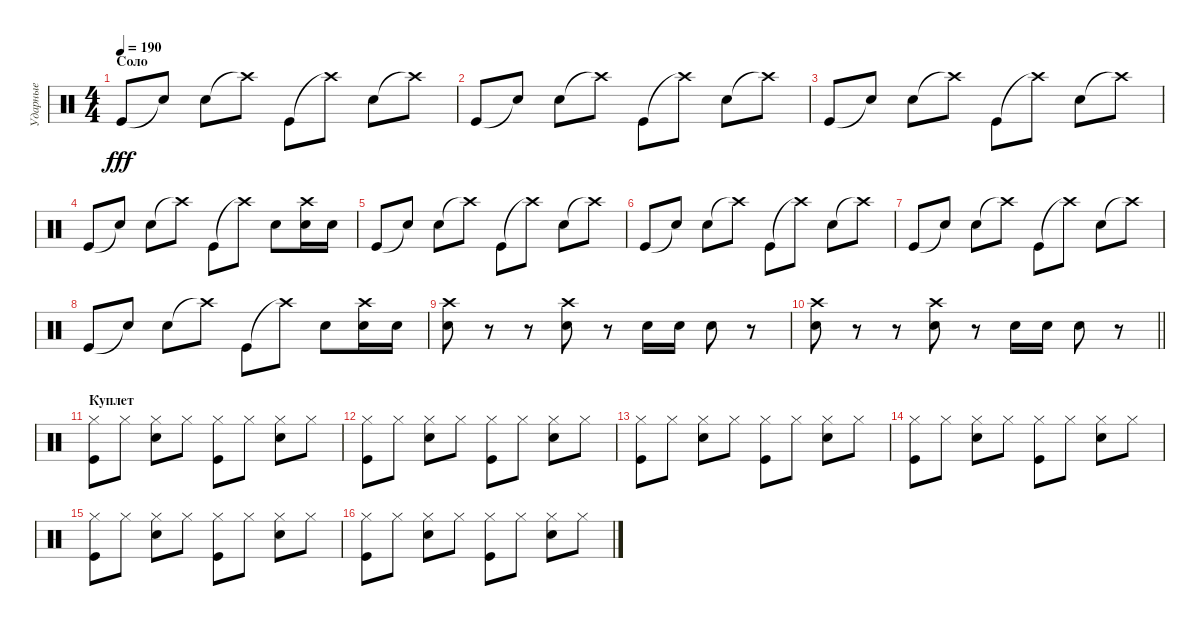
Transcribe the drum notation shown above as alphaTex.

\track ("Ударные" "Ударные") {instrument percussion}
\staff {score}
\articulation defaults
\ts (4 4)
\section ("" "Соло")
\tempo 190
\clef neutral
\ks c "Kick (hit)".8{dy fff} "Snare (hit)"{t}.8 "Electric Snare (hit)".8 "Crash high (hit)"{t}.8 "Kick (hit)".8 "Crash high (hit)"{t}.8 "Electric Snare (hit)".8 "Crash high (hit)"{t}.8
|
"Kick (hit)".8 "Snare (hit)"{t}.8 "Electric Snare (hit)".8 "Crash high (hit)"{t}.8 "Kick (hit)".8 "Crash high (hit)"{t}.8 "Electric Snare (hit)".8 "Crash high (hit)"{t}.8 |
"Kick (hit)".8 "Snare (hit)"{t}.8 "Electric Snare (hit)".8 "Crash high (hit)"{t}.8 "Kick (hit)".8 "Crash high (hit)"{t}.8 "Electric Snare (hit)".8 "Crash high (hit)"{t}.8 |
"Kick (hit)".8 "Snare (hit)"{t}.8 "Electric Snare (hit)".8 "Crash high (hit)"{t}.8 "Kick (hit)".8 "Crash high (hit)"{t}.8 "Electric Snare (hit)".8 ("Electric Snare (hit)" "Crash high (hit)").16 "Electric Snare (hit)".16 |
"Kick (hit)".8 "Snare (hit)"{t}.8 "Electric Snare (hit)".8 "Crash high (hit)"{t}.8 "Kick (hit)".8 "Crash high (hit)"{t}.8 "Electric Snare (hit)".8 "Crash high (hit)"{t}.8 |
"Kick (hit)".8 "Snare (hit)"{t}.8 "Electric Snare (hit)".8 "Crash high (hit)"{t}.8 "Kick (hit)".8 "Crash high (hit)"{t}.8 "Electric Snare (hit)".8 "Crash high (hit)"{t}.8 |
"Kick (hit)".8 "Snare (hit)"{t}.8 "Electric Snare (hit)".8 "Crash high (hit)"{t}.8 "Kick (hit)".8 "Crash high (hit)"{t}.8 "Electric Snare (hit)".8 "Crash high (hit)"{t}.8 |
"Kick (hit)".8 "Snare (hit)"{t}.8 "Electric Snare (hit)".8 "Crash high (hit)"{t}.8 "Kick (hit)".8 "Crash high (hit)"{t}.8 "Electric Snare (hit)".8 ("Electric Snare (hit)" "Crash high (hit)").16 "Electric Snare (hit)".16 |
("Crash high (hit)" "Electric Snare (hit)").8 r.8 r.8 ("Crash high (hit)" "Electric Snare (hit)").8 r.8 "Electric Snare (hit)".16 "Electric Snare (hit)".16 "Electric Snare (hit)".8 r.8 |
\barLineRight lightlight
("Crash high (hit)" "Electric Snare (hit)").8 r.8 r.8 ("Crash high (hit)" "Electric Snare (hit)").8 r.8 "Electric Snare (hit)".16 "Electric Snare (hit)".16 "Electric Snare (hit)".8 r.8 |
\section ("" "Куплет")
("Hi-Hat (closed)" "Kick (hit)").8 "Hi-Hat (closed)".8 ("Hi-Hat (closed)" "Electric Snare (hit)").8 "Hi-Hat (closed)".8 ("Hi-Hat (closed)" "Kick (hit)").8 "Hi-Hat (closed)".8 ("Hi-Hat (closed)" "Electric Snare (hit)").8 "Hi-Hat (closed)".8 |
("Hi-Hat (closed)" "Kick (hit)").8 "Hi-Hat (closed)".8 ("Hi-Hat (closed)" "Electric Snare (hit)").8 "Hi-Hat (closed)".8 ("Hi-Hat (closed)" "Kick (hit)").8 "Hi-Hat (closed)".8 ("Hi-Hat (closed)" "Electric Snare (hit)").8 "Hi-Hat (closed)".8 |
("Hi-Hat (closed)" "Kick (hit)").8 "Hi-Hat (closed)".8 ("Hi-Hat (closed)" "Electric Snare (hit)").8 "Hi-Hat (closed)".8 ("Hi-Hat (closed)" "Kick (hit)").8 "Hi-Hat (closed)".8 ("Hi-Hat (closed)" "Electric Snare (hit)").8 "Hi-Hat (closed)".8 |
("Hi-Hat (closed)" "Kick (hit)").8 "Hi-Hat (closed)".8 ("Hi-Hat (closed)" "Electric Snare (hit)").8 "Hi-Hat (closed)".8 ("Hi-Hat (closed)" "Kick (hit)").8 "Hi-Hat (closed)".8 ("Hi-Hat (closed)" "Electric Snare (hit)").8 "Hi-Hat (closed)".8 |
("Hi-Hat (closed)" "Kick (hit)").8 "Hi-Hat (closed)".8 ("Hi-Hat (closed)" "Electric Snare (hit)").8 "Hi-Hat (closed)".8 ("Hi-Hat (closed)" "Kick (hit)").8 "Hi-Hat (closed)".8 ("Hi-Hat (closed)" "Electric Snare (hit)").8 "Hi-Hat (closed)".8 |
("Hi-Hat (closed)" "Kick (hit)").8 "Hi-Hat (closed)".8 ("Hi-Hat (closed)" "Electric Snare (hit)").8 "Hi-Hat (closed)".8 ("Hi-Hat (closed)" "Kick (hit)").8 "Hi-Hat (closed)".8 ("Hi-Hat (closed)" "Electric Snare (hit)").8 "Hi-Hat (closed)".8
